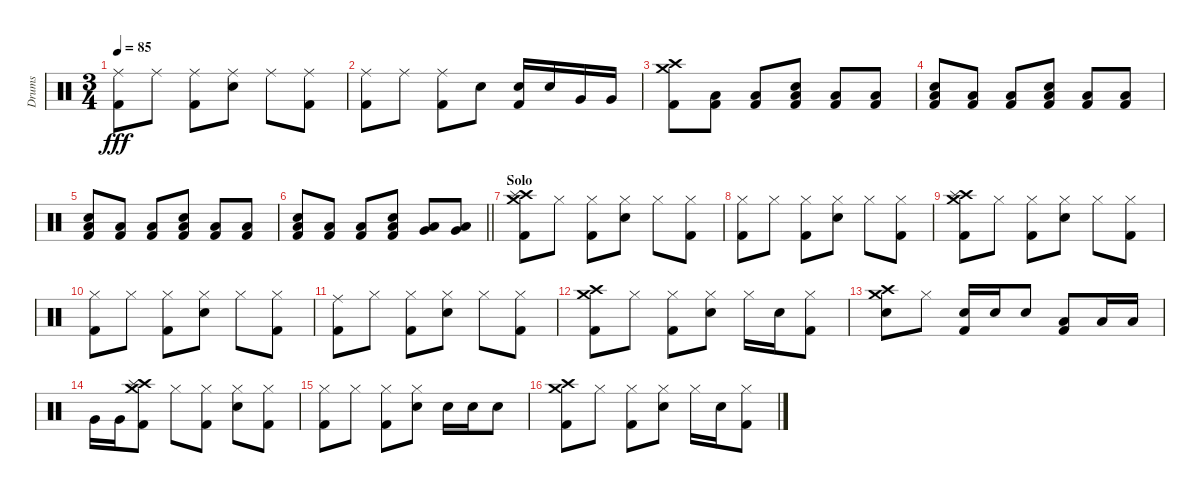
\track ("Drums" "Drums") {instrument percussion}
\staff {score}
\articulation defaults
\ts (3 4)
\tempo 85
\clef neutral
\ks c
("Ride (middle)" "Kick (hit) 2").8{dy fff} "Ride (middle)".8 ("Ride (middle)" "Kick (hit) 2").8 ("Ride (middle)" "Electric Snare (hit)").8 "Ride (middle)".8 ("Ride (middle)" "Kick (hit) 2").8 |
("Ride (middle)" "Kick (hit) 2").8 "Ride (middle)".8 ("Ride (middle)" "Kick (hit) 2").8 "Electric Snare (hit)".8 ("Electric Snare (hit)" "Kick (hit) 2").16 "Electric Snare (hit)".16 "Very Low Tom (hit)".16 "Very Low Tom (hit)".16 |
("Crash high (hit)" "Crash medium (hit)" "Kick (hit) 2").8 ("Low Floor Tom (hit)" "Kick (hit) 2").8 ("Low Floor Tom (hit)" "Kick (hit) 2").8 ("Low Floor Tom (hit)" "Electric Snare (hit)" "Kick (hit) 2").8 ("Low Floor Tom (hit)" "Kick (hit) 2").8 ("Low Floor Tom (hit)" "Kick (hit) 2").8 |
("Low Floor Tom (hit)" "Electric Snare (hit)" "Kick (hit) 2").8 ("Low Floor Tom (hit)" "Kick (hit) 2").8 ("Low Floor Tom (hit)" "Kick (hit) 2").8 ("Low Floor Tom (hit)" "Electric Snare (hit)" "Kick (hit) 2").8 ("Low Floor Tom (hit)" "Kick (hit) 2").8 ("Low Floor Tom (hit)" "Kick (hit) 2").8 |
("Low Floor Tom (hit)" "Electric Snare (hit)" "Kick (hit) 2").8 ("Low Floor Tom (hit)" "Kick (hit) 2").8 ("Low Floor Tom (hit)" "Kick (hit) 2").8 ("Low Floor Tom (hit)" "Electric Snare (hit)" "Kick (hit) 2").8 ("Low Floor Tom (hit)" "Kick (hit) 2").8 ("Low Floor Tom (hit)" "Kick (hit) 2").8 |
\barLineRight lightlight
("Low Floor Tom (hit)" "Electric Snare (hit)" "Kick (hit) 2").8 ("Low Floor Tom (hit)" "Kick (hit) 2").8 ("Low Floor Tom (hit)" "Kick (hit) 2").8 ("Low Floor Tom (hit)" "Electric Snare (hit)" "Kick (hit) 2").8 ("Low Floor Tom (hit)" "Very Low Tom (hit)").8 ("Low Floor Tom (hit)" "Very Low Tom (hit)").8 |
\section ("" "Solo")
("Crash high (hit)" "Crash medium (hit)" "Splash (hit)" "Kick (hit) 2").8 "Hi-Hat (closed)".8 ("Hi-Hat (closed)" "Kick (hit) 2").8 ("Hi-Hat (closed)" "Electric Snare (hit)").8 "Hi-Hat (closed)".8 ("Hi-Hat (closed)" "Kick (hit) 2").8 |
("Hi-Hat (closed)" "Kick (hit) 2").8 "Hi-Hat (closed)".8 ("Hi-Hat (closed)" "Kick (hit) 2").8 ("Hi-Hat (closed)" "Electric Snare (hit)").8 "Hi-Hat (closed)".8 ("Hi-Hat (closed)" "Kick (hit) 2").8 |
("Crash high (hit)" "Crash medium (hit)" "Splash (hit)" "Kick (hit) 2").8 "Hi-Hat (closed)".8 ("Hi-Hat (closed)" "Kick (hit) 2").8 ("Hi-Hat (closed)" "Electric Snare (hit)").8 "Hi-Hat (closed)".8 ("Hi-Hat (closed)" "Kick (hit) 2").8 |
("Hi-Hat (closed)" "Kick (hit) 2").8 "Hi-Hat (closed)".8 ("Hi-Hat (closed)" "Kick (hit) 2").8 ("Hi-Hat (closed)" "Electric Snare (hit)").8 "Hi-Hat (closed)".8 ("Hi-Hat (closed)" "Kick (hit) 2").8 |
("Ride (middle)" "Kick (hit) 2").8 "Hi-Hat (closed)".8 ("Hi-Hat (closed)" "Kick (hit) 2").8 ("Hi-Hat (closed)" "Electric Snare (hit)").8 "Hi-Hat (closed)".8 ("Hi-Hat (closed)" "Kick (hit) 2").8 |
("Crash high (hit)" "Crash medium (hit)" "Kick (hit) 2").8 "Hi-Hat (closed)".8 ("Hi-Hat (closed)" "Kick (hit) 2").8 ("Hi-Hat (closed)" "Electric Snare (hit)").8 "Hi-Hat (closed)".16 "Electric Snare (hit)".16 ("Hi-Hat (closed)" "Kick (hit) 2").8 |
("Crash high (hit)" "Crash medium (hit)" "Electric Snare (hit)").8 "Hi-Hat (closed)".8 ("Electric Snare (hit)" "Kick (hit) 2").16 "Electric Snare (hit)".16 "Electric Snare (hit)".8 ("Low Tom (hit)" "Kick (hit) 2").8 "Low Tom (hit)".16 "Low Tom (hit)".16 |
"Very Low Tom (hit)".16 "Very Low Tom (hit)".16 ("Crash high (hit)" "Crash medium (hit)" "Splash (hit)" "Kick (hit) 2").8 "Hi-Hat (closed)".8 ("Hi-Hat (closed)" "Kick (hit) 2").8 ("Hi-Hat (closed)" "Electric Snare (hit)").8 ("Hi-Hat (closed)" "Kick (hit) 2").8 |
("Hi-Hat (closed)" "Kick (hit) 2").8 "Hi-Hat (closed)".8 ("Hi-Hat (closed)" "Kick (hit) 2").8 ("Hi-Hat (closed)" "Electric Snare (hit)").8 "Electric Snare (hit)".16 "Electric Snare (hit)".16 "Electric Snare (hit)".8 |
("Crash high (hit)" "Crash medium (hit)" "Kick (hit) 2").8 "Hi-Hat (closed)".8 ("Hi-Hat (closed)" "Kick (hit) 2").8 ("Hi-Hat (closed)" "Electric Snare (hit)").8 "Hi-Hat (closed)".16 "Electric Snare (hit)".16 ("Hi-Hat (closed)" "Kick (hit) 2").8
